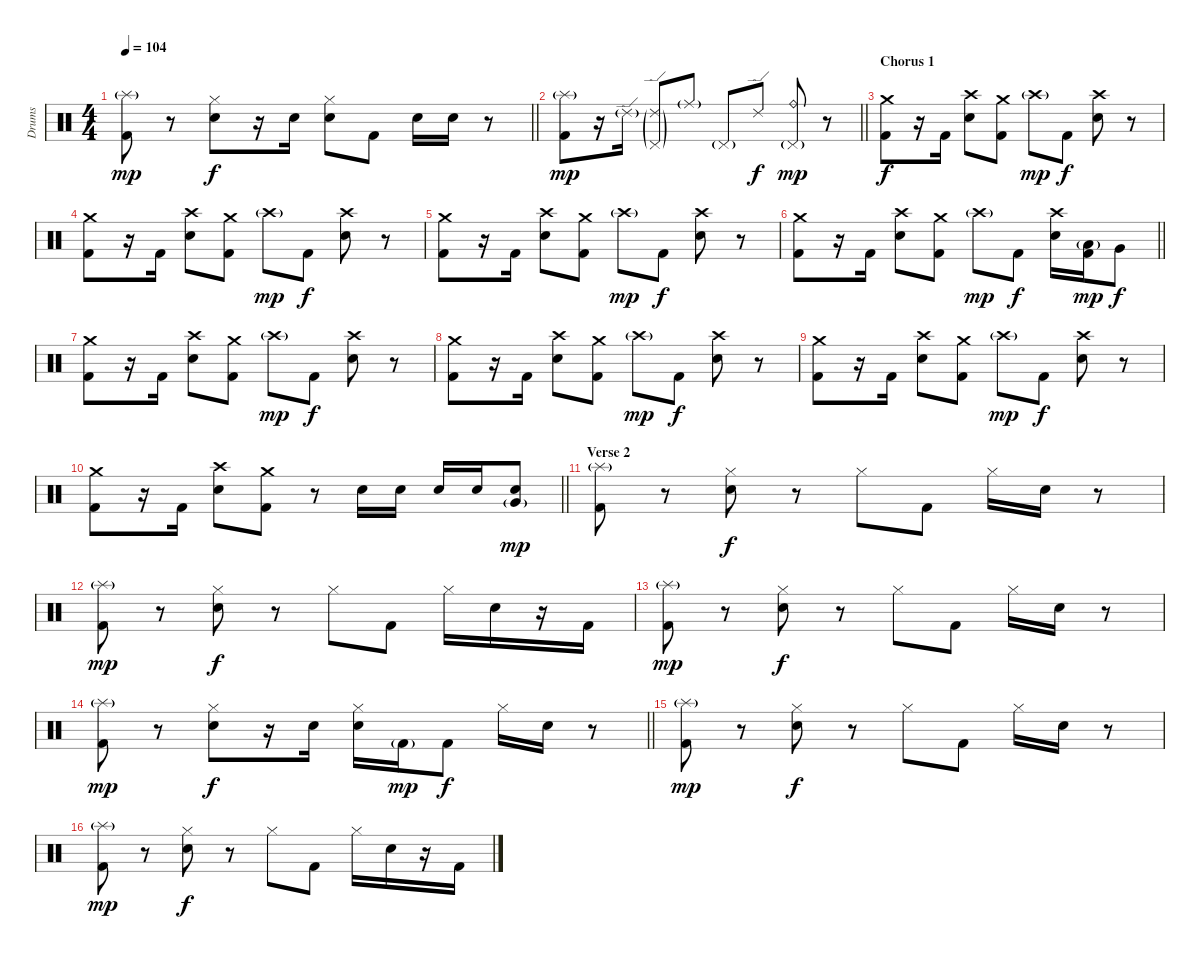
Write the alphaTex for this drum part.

\track ("Drums" "Drums") {instrument percussion}
\staff {score}
\articulation defaults
\ts (4 4)
\tempo 104
\clef neutral
\barLineRight lightlight
\ks c
("Splash (hit)"{g} "Kick (hit) 2").8{dy mp} r.8 ("Hi-Hat (closed)" "Electric Snare (hit)").8{dy f} r.16 "Electric Snare (hit)".16 ("Hi-Hat (closed)" "Electric Snare (hit)").8 "Kick (hit) 2".8 "Electric Snare (hit)".16 "Electric Snare (hit)".16 r.8 |
\barLineRight lightlight
("Splash (hit)"{g} "Kick (hit) 2").8{dy mp} r.16 "Ride (edge) 2"{g}.16 ("Ride (edge) 2"{g} "Pedal Hi-Hat (hit)"{g}).8 "Ride (middle)"{g}.8 "Pedal Hi-Hat (hit)"{g}.8 "Ride (edge) 2".8{dy f} ("Ride (bell)" "Pedal Hi-Hat (hit)"{g}).8{dy mp} r.8 |
\section ("" "Chorus 1")
("Crash medium (hit)" "Kick (hit) 2").8{dy f} r.16 "Kick (hit) 2".16 ("Crash high (hit)" "Electric Snare (hit)").8 ("Crash medium (hit)" "Kick (hit) 2").8 "Crash high (hit)"{g}.8{dy mp} "Kick (hit) 2".8{dy f} ("Crash high (hit)" "Electric Snare (hit)").8 r.8 |
("Crash medium (hit)" "Kick (hit) 2").8 r.16 "Kick (hit) 2".16 ("Crash high (hit)" "Electric Snare (hit)").8 ("Crash medium (hit)" "Kick (hit) 2").8 "Crash high (hit)"{g}.8{dy mp} "Kick (hit) 2".8{dy f} ("Crash high (hit)" "Electric Snare (hit)").8 r.8 |
("Crash medium (hit)" "Kick (hit) 2").8 r.16 "Kick (hit) 2".16 ("Crash high (hit)" "Electric Snare (hit)").8 ("Crash medium (hit)" "Kick (hit) 2").8 "Crash high (hit)"{g}.8{dy mp} "Kick (hit) 2".8{dy f} ("Crash high (hit)" "Electric Snare (hit)").8 r.8 |
\barLineRight lightlight
("Crash medium (hit)" "Kick (hit) 2").8 r.16 "Kick (hit) 2".16 ("Crash high (hit)" "Electric Snare (hit)").8 ("Crash medium (hit)" "Kick (hit) 2").8 "Crash high (hit)"{g}.8{dy mp} "Kick (hit) 2".8{dy f} ("Crash high (hit)" "Electric Snare (hit)").16 ("Low Tom (hit)"{g} "Kick (hit) 2").16{dy mp} "Very Low Tom (hit)".8{dy f} |
("Crash medium (hit)" "Kick (hit) 2").8 r.16 "Kick (hit) 2".16 ("Crash high (hit)" "Electric Snare (hit)").8 ("Crash medium (hit)" "Kick (hit) 2").8 "Crash high (hit)"{g}.8{dy mp} "Kick (hit) 2".8{dy f} ("Crash high (hit)" "Electric Snare (hit)").8 r.8 |
("Crash medium (hit)" "Kick (hit) 2").8 r.16 "Kick (hit) 2".16 ("Crash high (hit)" "Electric Snare (hit)").8 ("Crash medium (hit)" "Kick (hit) 2").8 "Crash high (hit)"{g}.8{dy mp} "Kick (hit) 2".8{dy f} ("Crash high (hit)" "Electric Snare (hit)").8 r.8 |
("Crash medium (hit)" "Kick (hit) 2").8 r.16 "Kick (hit) 2".16 ("Crash high (hit)" "Electric Snare (hit)").8 ("Crash medium (hit)" "Kick (hit) 2").8 "Crash high (hit)"{g}.8{dy mp} "Kick (hit) 2".8{dy f} ("Crash high (hit)" "Electric Snare (hit)").8 r.8 |
\barLineRight lightlight
("Crash medium (hit)" "Kick (hit) 2").8 r.16 "Kick (hit) 2".16 ("Crash high (hit)" "Electric Snare (hit)").8 ("Crash medium (hit)" "Kick (hit) 2").8 r.8 "Electric Snare (hit)".16 "Electric Snare (hit)".16 "Electric Snare (hit)".16 "Electric Snare (hit)".16 ("Electric Snare (hit)" "Very Low Tom (hit)"{g}).8{dy mp} |
\section ("" "Verse 2")
("Splash (hit)"{g} "Kick (hit) 2").8 r.8 ("Hi-Hat (closed)" "Electric Snare (hit)").8{dy f} r.8 "Hi-Hat (closed)".8 "Kick (hit) 2".8 "Hi-Hat (closed)".16 "Electric Snare (hit)".16 r.8 |
("Splash (hit)"{g} "Kick (hit) 2").8{dy mp} r.8 ("Hi-Hat (closed)" "Electric Snare (hit)").8{dy f} r.8 "Hi-Hat (closed)".8 "Kick (hit) 2".8 "Hi-Hat (closed)".16 "Electric Snare (hit)".16 r.16 "Kick (hit) 2".16 |
("Splash (hit)"{g} "Kick (hit) 2").8{dy mp} r.8 ("Hi-Hat (closed)" "Electric Snare (hit)").8{dy f} r.8 "Hi-Hat (closed)".8 "Kick (hit) 2".8 "Hi-Hat (closed)".16 "Electric Snare (hit)".16 r.8 |
\barLineRight lightlight
("Splash (hit)"{g} "Kick (hit) 2").8{dy mp} r.8 ("Hi-Hat (closed)" "Electric Snare (hit)").8{dy f} r.16 "Electric Snare (hit)".16 ("Hi-Hat (closed)" "Electric Snare (hit)").16 "Kick (hit) 2"{g}.16{dy mp} "Kick (hit) 2".8{dy f} "Hi-Hat (closed)".16 "Electric Snare (hit)".16 r.8 |
("Splash (hit)"{g} "Kick (hit) 2").8{dy mp} r.8 ("Hi-Hat (closed)" "Electric Snare (hit)").8{dy f} r.8 "Hi-Hat (closed)".8 "Kick (hit) 2".8 "Hi-Hat (closed)".16 "Electric Snare (hit)".16 r.8 |
("Splash (hit)"{g} "Kick (hit) 2").8{dy mp} r.8 ("Hi-Hat (closed)" "Electric Snare (hit)").8{dy f} r.8 "Hi-Hat (closed)".8 "Kick (hit) 2".8 "Hi-Hat (closed)".16 "Electric Snare (hit)".16 r.16 "Kick (hit) 2".16
